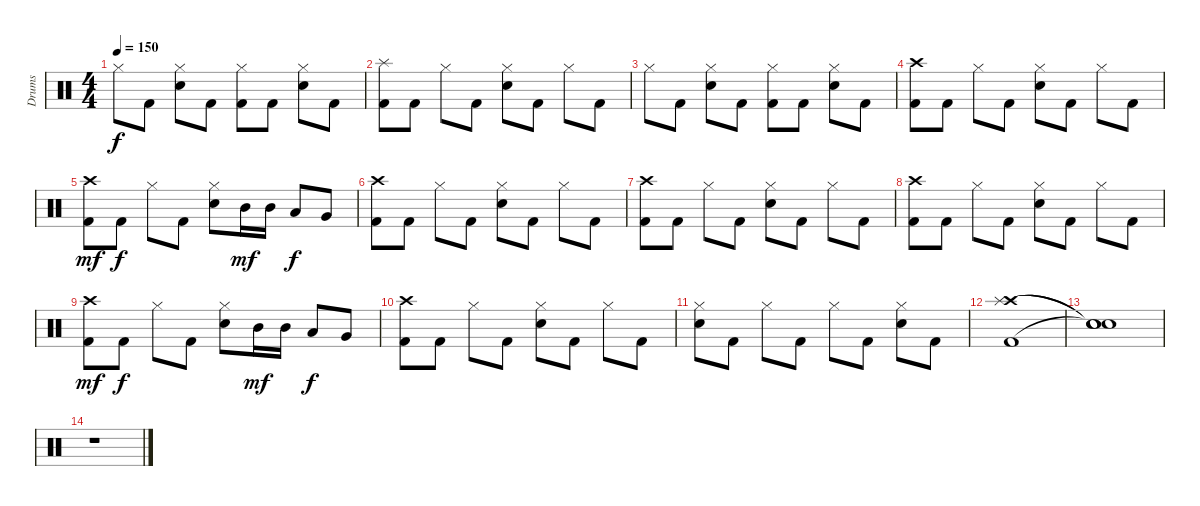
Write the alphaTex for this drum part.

\track ("Drums" "Drums") {instrument percussion}
\staff {score}
\articulation defaults
\ts (4 4)
\tempo 150
\clef neutral
\ks c "Hi-Hat (closed)".8{dy f} "Kick (hit) 2".8
("Hi-Hat (closed)" "Snare (hit) 2").8 "Kick (hit) 2".8 ("Kick (hit) 2" "Hi-Hat (closed)").8 "Kick (hit) 2".8 ("Snare (hit) 2" "Hi-Hat (closed)").8 "Kick (hit) 2".8 |
("Kick (hit) 2" "Splash (hit)").8 "Kick (hit) 2".8 "Hi-Hat (closed)".8 "Kick (hit) 2".8 ("Hi-Hat (closed)" "Snare (hit) 2").8 "Kick (hit) 2".8 "Hi-Hat (closed)".8 "Kick (hit) 2".8 |
"Hi-Hat (closed)".8 "Kick (hit) 2".8 ("Snare (hit) 2" "Hi-Hat (closed)").8 "Kick (hit) 2".8 ("Kick (hit) 2" "Hi-Hat (closed)").8 "Kick (hit) 2".8 ("Hi-Hat (closed)" "Snare (hit) 2").8 "Kick (hit) 2".8 |
("Crash high (hit)" "Kick (hit) 2").8 "Kick (hit) 2".8 "Hi-Hat (closed)".8 "Kick (hit) 2".8 ("Snare (hit) 2" "Hi-Hat (closed)").8 "Kick (hit) 2".8 "Hi-Hat (closed)".8 "Kick (hit) 2".8 |
("Crash high (hit)" "Kick (hit) 2").8{dy mf} "Kick (hit) 2".8{dy f} "Hi-Hat (closed)".8 "Kick (hit) 2".8 ("Hi-Hat (closed)" "Snare (hit) 2").8 "Mid Tom (hit)".16{dy mf} "Mid Tom (hit)".16 "Low Tom (hit)".8{dy f} "Very Low Tom (hit)".8 |
("Crash high (hit)" "Kick (hit) 2").8 "Kick (hit) 2".8 "Hi-Hat (closed)".8 "Kick (hit) 2".8 ("Hi-Hat (closed)" "Snare (hit) 2").8 "Kick (hit) 2".8 "Hi-Hat (closed)".8 "Kick (hit) 2".8 |
("Crash high (hit)" "Kick (hit) 2").8 "Kick (hit) 2".8 "Hi-Hat (closed)".8 "Kick (hit) 2".8 ("Hi-Hat (closed)" "Snare (hit) 2").8 "Kick (hit) 2".8 "Hi-Hat (closed)".8 "Kick (hit) 2".8 |
("Crash high (hit)" "Kick (hit) 2").8 "Kick (hit) 2".8 "Hi-Hat (closed)".8 "Kick (hit) 2".8 ("Snare (hit) 2" "Hi-Hat (closed)").8 "Kick (hit) 2".8 "Hi-Hat (closed)".8 "Kick (hit) 2".8 |
("Crash high (hit)" "Kick (hit) 2").8{dy mf} "Kick (hit) 2".8{dy f} "Hi-Hat (closed)".8 "Kick (hit) 2".8 ("Hi-Hat (closed)" "Snare (hit) 2").8 "Mid Tom (hit)".16{dy mf} "Mid Tom (hit)".16 "Low Tom (hit)".8{dy f} "Very Low Tom (hit)".8 |
("Crash high (hit)" "Kick (hit) 2").8 "Kick (hit) 2".8 "Hi-Hat (closed)".8 "Kick (hit) 2".8 ("Hi-Hat (closed)" "Snare (hit) 2").8 "Kick (hit) 2".8 "Hi-Hat (closed)".8 "Kick (hit) 2".8 |
("Snare (hit) 2" "Hi-Hat (closed)").8 "Kick (hit) 2".8 "Hi-Hat (closed)".8 "Kick (hit) 2".8 "Hi-Hat (closed)".8 "Kick (hit) 2".8 ("Hi-Hat (closed)" "Snare (hit) 2").8 "Kick (hit) 2".8 |
("Crash high (hit)" "Splash (hit)" "Kick (hit) 2").1 |
("Snare (hit)"{t} "Snare (hit)"{t} "Snare (hit)"{t}).1 |
r.1
